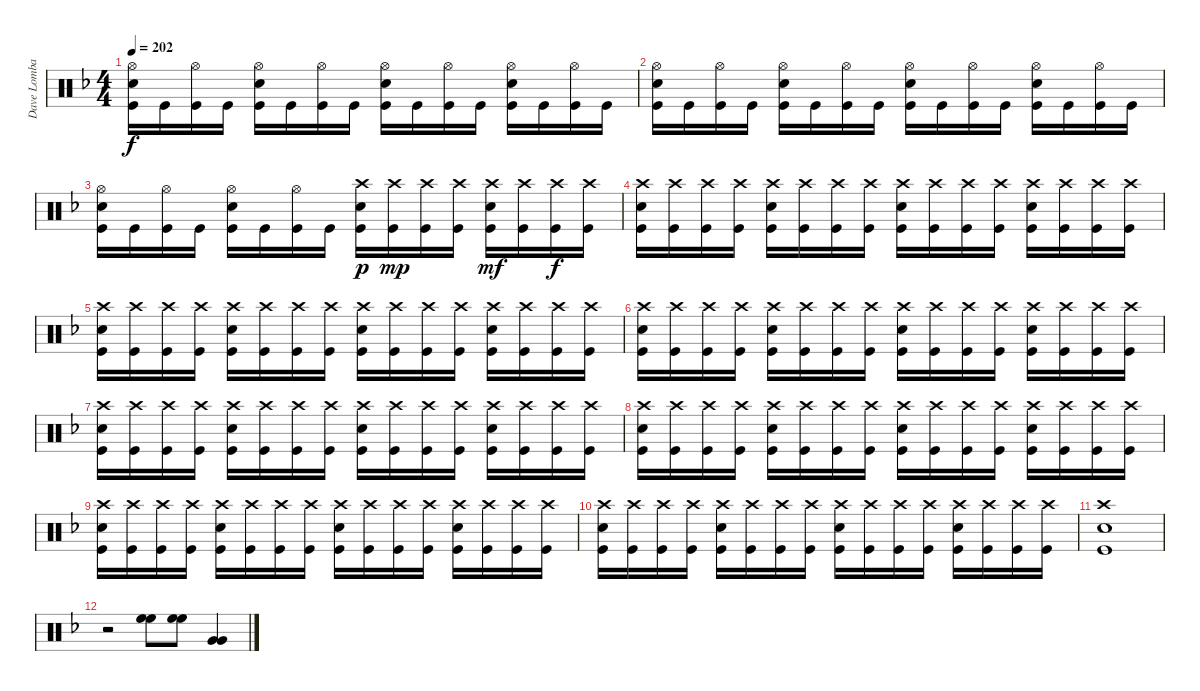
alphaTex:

\track ("Dave Lombardo - Drums" "Dave Lomba") {instrument percussion}
\staff {score}
\articulation defaults
\ts (4 4)
\tempo 202
\clef neutral
\ks f
("Hi-Hat (open)" "Snare (hit) 2" "Kick (hit)").16{dy f} "Kick (hit)".16 ("Hi-Hat (open)" "Kick (hit)").16 "Kick (hit)".16 ("Hi-Hat (open)" "Snare (hit) 2" "Kick (hit)").16 "Kick (hit)".16 ("Hi-Hat (open)" "Kick (hit)").16 "Kick (hit)".16 ("Hi-Hat (open)" "Snare (hit) 2" "Kick (hit)").16 "Kick (hit)".16 ("Hi-Hat (open)" "Kick (hit)").16 "Kick (hit)".16 ("Hi-Hat (open)" "Snare (hit) 2" "Kick (hit)").16 "Kick (hit)".16 ("Hi-Hat (open)" "Kick (hit)").16 "Kick (hit)".16 |
("Hi-Hat (open)" "Snare (hit) 2" "Kick (hit)").16 "Kick (hit)".16 ("Hi-Hat (open)" "Kick (hit)").16 "Kick (hit)".16 ("Hi-Hat (open)" "Snare (hit) 2" "Kick (hit)").16 "Kick (hit)".16 ("Hi-Hat (open)" "Kick (hit)").16 "Kick (hit)".16 ("Hi-Hat (open)" "Snare (hit) 2" "Kick (hit)").16 "Kick (hit)".16 ("Hi-Hat (open)" "Kick (hit)").16 "Kick (hit)".16 ("Hi-Hat (open)" "Snare (hit) 2" "Kick (hit)").16 "Kick (hit)".16 ("Hi-Hat (open)" "Kick (hit)").16 "Kick (hit)".16 |
("Hi-Hat (open)" "Snare (hit) 2" "Kick (hit)").16 "Kick (hit)".16 ("Hi-Hat (open)" "Kick (hit)").16 "Kick (hit)".16 ("Hi-Hat (open)" "Snare (hit) 2" "Kick (hit)").16 "Kick (hit)".16 ("Hi-Hat (open)" "Kick (hit)").16 "Kick (hit)".16 ("Crash high (hit)" "Snare (hit) 2" "Kick (hit)").16{dy p} ("Crash high (hit)" "Kick (hit)").16{dy mp} ("Crash high (hit)" "Kick (hit)").16 ("Crash high (hit)" "Kick (hit)").16 ("Crash high (hit)" "Snare (hit) 2" "Kick (hit)").16{dy mf} ("Crash high (hit)" "Kick (hit)").16 ("Crash high (hit)" "Kick (hit)").16{dy f} ("Crash high (hit)" "Kick (hit)").16 |
("Crash high (hit)" "Snare (hit) 2" "Kick (hit)").16 ("Crash high (hit)" "Kick (hit)").16 ("Crash high (hit)" "Kick (hit)").16 ("Crash high (hit)" "Kick (hit)").16 ("Crash high (hit)" "Snare (hit) 2" "Kick (hit)").16 ("Crash high (hit)" "Kick (hit)").16 ("Crash high (hit)" "Kick (hit)").16 ("Crash high (hit)" "Kick (hit)").16 ("Crash high (hit)" "Snare (hit) 2" "Kick (hit)").16 ("Crash high (hit)" "Kick (hit)").16 ("Crash high (hit)" "Kick (hit)").16 ("Crash high (hit)" "Kick (hit)").16 ("Crash high (hit)" "Snare (hit) 2" "Kick (hit)").16 ("Crash high (hit)" "Kick (hit)").16 ("Crash high (hit)" "Kick (hit)").16 ("Crash high (hit)" "Kick (hit)").16 |
("Crash high (hit)" "Snare (hit) 2" "Kick (hit)").16 ("Crash high (hit)" "Kick (hit)").16 ("Crash high (hit)" "Kick (hit)").16 ("Crash high (hit)" "Kick (hit)").16 ("Crash high (hit)" "Snare (hit) 2" "Kick (hit)").16 ("Crash high (hit)" "Kick (hit)").16 ("Crash high (hit)" "Kick (hit)").16 ("Crash high (hit)" "Kick (hit)").16 ("Crash high (hit)" "Snare (hit) 2" "Kick (hit)").16 ("Crash high (hit)" "Kick (hit)").16 ("Crash high (hit)" "Kick (hit)").16 ("Crash high (hit)" "Kick (hit)").16 ("Crash high (hit)" "Snare (hit) 2" "Kick (hit)").16 ("Crash high (hit)" "Kick (hit)").16 ("Crash high (hit)" "Kick (hit)").16 ("Crash high (hit)" "Kick (hit)").16 |
("Crash high (hit)" "Snare (hit) 2" "Kick (hit)").16 ("Crash high (hit)" "Kick (hit)").16 ("Crash high (hit)" "Kick (hit)").16 ("Crash high (hit)" "Kick (hit)").16 ("Crash high (hit)" "Snare (hit) 2" "Kick (hit)").16 ("Crash high (hit)" "Kick (hit)").16 ("Crash high (hit)" "Kick (hit)").16 ("Crash high (hit)" "Kick (hit)").16 ("Crash high (hit)" "Snare (hit) 2" "Kick (hit)").16 ("Crash high (hit)" "Kick (hit)").16 ("Crash high (hit)" "Kick (hit)").16 ("Crash high (hit)" "Kick (hit)").16 ("Crash high (hit)" "Snare (hit) 2" "Kick (hit)").16 ("Crash high (hit)" "Kick (hit)").16 ("Crash high (hit)" "Kick (hit)").16 ("Crash high (hit)" "Kick (hit)").16 |
("Crash high (hit)" "Snare (hit) 2" "Kick (hit)").16 ("Crash high (hit)" "Kick (hit)").16 ("Crash high (hit)" "Kick (hit)").16 ("Crash high (hit)" "Kick (hit)").16 ("Crash high (hit)" "Snare (hit) 2" "Kick (hit)").16 ("Crash high (hit)" "Kick (hit)").16 ("Crash high (hit)" "Kick (hit)").16 ("Crash high (hit)" "Kick (hit)").16 ("Crash high (hit)" "Snare (hit) 2" "Kick (hit)").16 ("Crash high (hit)" "Kick (hit)").16 ("Crash high (hit)" "Kick (hit)").16 ("Crash high (hit)" "Kick (hit)").16 ("Crash high (hit)" "Snare (hit) 2" "Kick (hit)").16 ("Crash high (hit)" "Kick (hit)").16 ("Crash high (hit)" "Kick (hit)").16 ("Crash high (hit)" "Kick (hit)").16 |
("Crash high (hit)" "Snare (hit) 2" "Kick (hit)").16 ("Crash high (hit)" "Kick (hit)").16 ("Crash high (hit)" "Kick (hit)").16 ("Crash high (hit)" "Kick (hit)").16 ("Crash high (hit)" "Snare (hit) 2" "Kick (hit)").16 ("Crash high (hit)" "Kick (hit)").16 ("Crash high (hit)" "Kick (hit)").16 ("Crash high (hit)" "Kick (hit)").16 ("Crash high (hit)" "Snare (hit) 2" "Kick (hit)").16 ("Crash high (hit)" "Kick (hit)").16 ("Crash high (hit)" "Kick (hit)").16 ("Crash high (hit)" "Kick (hit)").16 ("Crash high (hit)" "Snare (hit) 2" "Kick (hit)").16 ("Crash high (hit)" "Kick (hit)").16 ("Crash high (hit)" "Kick (hit)").16 ("Crash high (hit)" "Kick (hit)").16 |
("Crash high (hit)" "Snare (hit) 2" "Kick (hit)").16 ("Crash high (hit)" "Kick (hit)").16 ("Crash high (hit)" "Kick (hit)").16 ("Crash high (hit)" "Kick (hit)").16 ("Crash high (hit)" "Snare (hit) 2" "Kick (hit)").16 ("Crash high (hit)" "Kick (hit)").16 ("Crash high (hit)" "Kick (hit)").16 ("Crash high (hit)" "Kick (hit)").16 ("Crash high (hit)" "Snare (hit) 2" "Kick (hit)").16 ("Crash high (hit)" "Kick (hit)").16 ("Crash high (hit)" "Kick (hit)").16 ("Crash high (hit)" "Kick (hit)").16 ("Crash high (hit)" "Snare (hit) 2" "Kick (hit)").16 ("Crash high (hit)" "Kick (hit)").16 ("Crash high (hit)" "Kick (hit)").16 ("Crash high (hit)" "Kick (hit)").16 |
("Crash high (hit)" "Snare (hit) 2" "Kick (hit)").16 ("Crash high (hit)" "Kick (hit)").16 ("Crash high (hit)" "Kick (hit)").16 ("Crash high (hit)" "Kick (hit)").16 ("Crash high (hit)" "Snare (hit) 2" "Kick (hit)").16 ("Crash high (hit)" "Kick (hit)").16 ("Crash high (hit)" "Kick (hit)").16 ("Crash high (hit)" "Kick (hit)").16 ("Crash high (hit)" "Snare (hit) 2" "Kick (hit)").16 ("Crash high (hit)" "Kick (hit)").16 ("Crash high (hit)" "Kick (hit)").16 ("Crash high (hit)" "Kick (hit)").16 ("Crash high (hit)" "Snare (hit) 2" "Kick (hit)").16 ("Crash high (hit)" "Kick (hit)").16 ("Crash high (hit)" "Kick (hit)").16 ("Crash high (hit)" "Kick (hit)").16 |
("Crash high (hit)" "Snare (hit) 2" "Kick (hit)").1 |
r.2 ("High Floor Tom (hit)" "High Floor Tom (hit)").8 ("High Floor Tom (hit)" "High Floor Tom (hit)").8 ("Very Low Tom (hit)" "Very Low Tom (hit)").4
